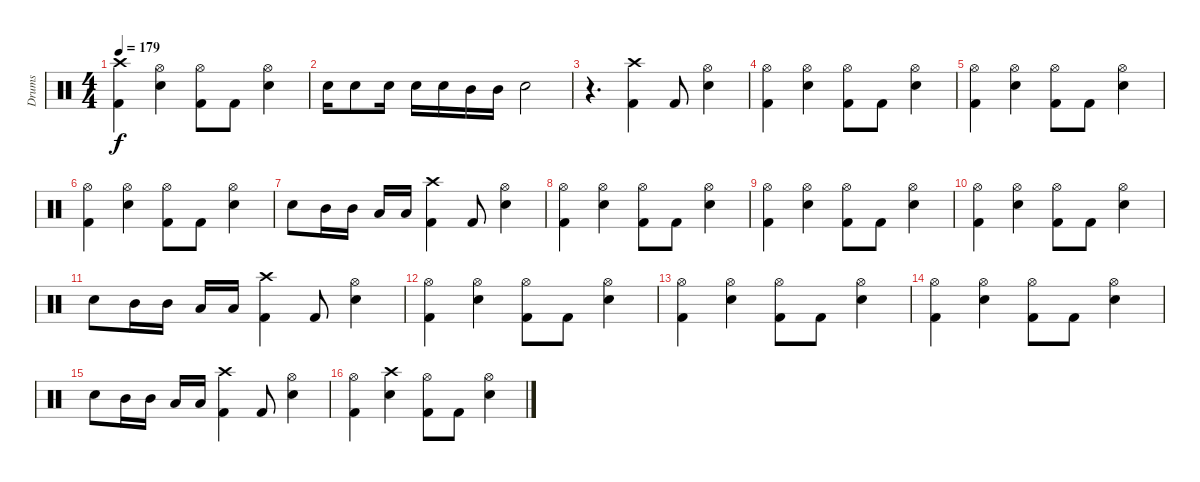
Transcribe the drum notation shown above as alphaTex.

\track ("Drums" "Drums") {instrument percussion}
\staff {score}
\articulation defaults
\ts (4 4)
\tempo 179
\clef neutral
\ks c
("Crash high (hit)" "Kick (hit) 2").4{dy f} ("Hi-Hat (open)" "Snare (hit) 2").4 ("Hi-Hat (open)" "Kick (hit) 2").8 "Kick (hit) 2".8 ("Hi-Hat (open)" "Snare (hit) 2").4 |
"Snare (hit) 2".16 "Snare (hit) 2".8 "Snare (hit) 2".16 "Snare (hit) 2".16 "Snare (hit) 2".16 "Mid Tom (hit)".16 "Mid Tom (hit)".16 "Snare (hit) 2".2 |
r.4{d} ("Crash high (hit)" "Kick (hit) 2").4 "Kick (hit) 2".8 ("Hi-Hat (open)" "Snare (hit) 2").4 |
("Hi-Hat (open)" "Kick (hit) 2").4 ("Hi-Hat (open)" "Snare (hit) 2").4 ("Hi-Hat (open)" "Kick (hit) 2").8 "Kick (hit) 2".8 ("Hi-Hat (open)" "Snare (hit) 2").4 |
("Hi-Hat (open)" "Kick (hit) 2").4 ("Hi-Hat (open)" "Snare (hit) 2").4 ("Hi-Hat (open)" "Kick (hit) 2").8 "Kick (hit) 2".8 ("Hi-Hat (open)" "Snare (hit) 2").4 |
("Hi-Hat (open)" "Kick (hit) 2").4 ("Hi-Hat (open)" "Snare (hit) 2").4 ("Hi-Hat (open)" "Kick (hit) 2").8 "Kick (hit) 2".8 ("Hi-Hat (open)" "Snare (hit) 2").4 |
"Snare (hit) 2".8 "Mid Tom (hit)".16 "Mid Tom (hit)".16 "Low Tom (hit)".16 "Low Tom (hit)".16 ("Crash high (hit)" "Kick (hit) 2").4 "Kick (hit) 2".8 ("Hi-Hat (open)" "Snare (hit) 2").4 |
("Hi-Hat (open)" "Kick (hit) 2").4 ("Hi-Hat (open)" "Snare (hit) 2").4 ("Hi-Hat (open)" "Kick (hit) 2").8 "Kick (hit) 2".8 ("Hi-Hat (open)" "Snare (hit) 2").4 |
("Hi-Hat (open)" "Kick (hit) 2").4 ("Hi-Hat (open)" "Snare (hit) 2").4 ("Hi-Hat (open)" "Kick (hit) 2").8 "Kick (hit) 2".8 ("Hi-Hat (open)" "Snare (hit) 2").4 |
("Hi-Hat (open)" "Kick (hit) 2").4 ("Hi-Hat (open)" "Snare (hit) 2").4 ("Hi-Hat (open)" "Kick (hit) 2").8 "Kick (hit) 2".8 ("Hi-Hat (open)" "Snare (hit) 2").4 |
"Snare (hit) 2".8 "Mid Tom (hit)".16 "Mid Tom (hit)".16 "Low Tom (hit)".16 "Low Tom (hit)".16 ("Crash high (hit)" "Kick (hit) 2").4 "Kick (hit) 2".8 ("Hi-Hat (open)" "Snare (hit) 2").4 |
("Hi-Hat (open)" "Kick (hit) 2").4 ("Hi-Hat (open)" "Snare (hit) 2").4 ("Hi-Hat (open)" "Kick (hit) 2").8 "Kick (hit) 2".8 ("Hi-Hat (open)" "Snare (hit) 2").4 |
("Hi-Hat (open)" "Kick (hit) 2").4 ("Hi-Hat (open)" "Snare (hit) 2").4 ("Hi-Hat (open)" "Kick (hit) 2").8 "Kick (hit) 2".8 ("Hi-Hat (open)" "Snare (hit) 2").4 |
("Hi-Hat (open)" "Kick (hit) 2").4 ("Hi-Hat (open)" "Snare (hit) 2").4 ("Hi-Hat (open)" "Kick (hit) 2").8 "Kick (hit) 2".8 ("Hi-Hat (open)" "Snare (hit) 2").4 |
"Snare (hit) 2".8 "Mid Tom (hit)".16 "Mid Tom (hit)".16 "Low Tom (hit)".16 "Low Tom (hit)".16 ("Crash high (hit)" "Kick (hit) 2").4 "Kick (hit) 2".8 ("Hi-Hat (open)" "Snare (hit) 2").4 |
("Hi-Hat (open)" "Kick (hit) 2").4 ("Crash high (hit)" "Snare (hit) 2").4 ("Hi-Hat (open)" "Kick (hit) 2").8 "Kick (hit) 2".8 ("Hi-Hat (open)" "Snare (hit) 2").4
